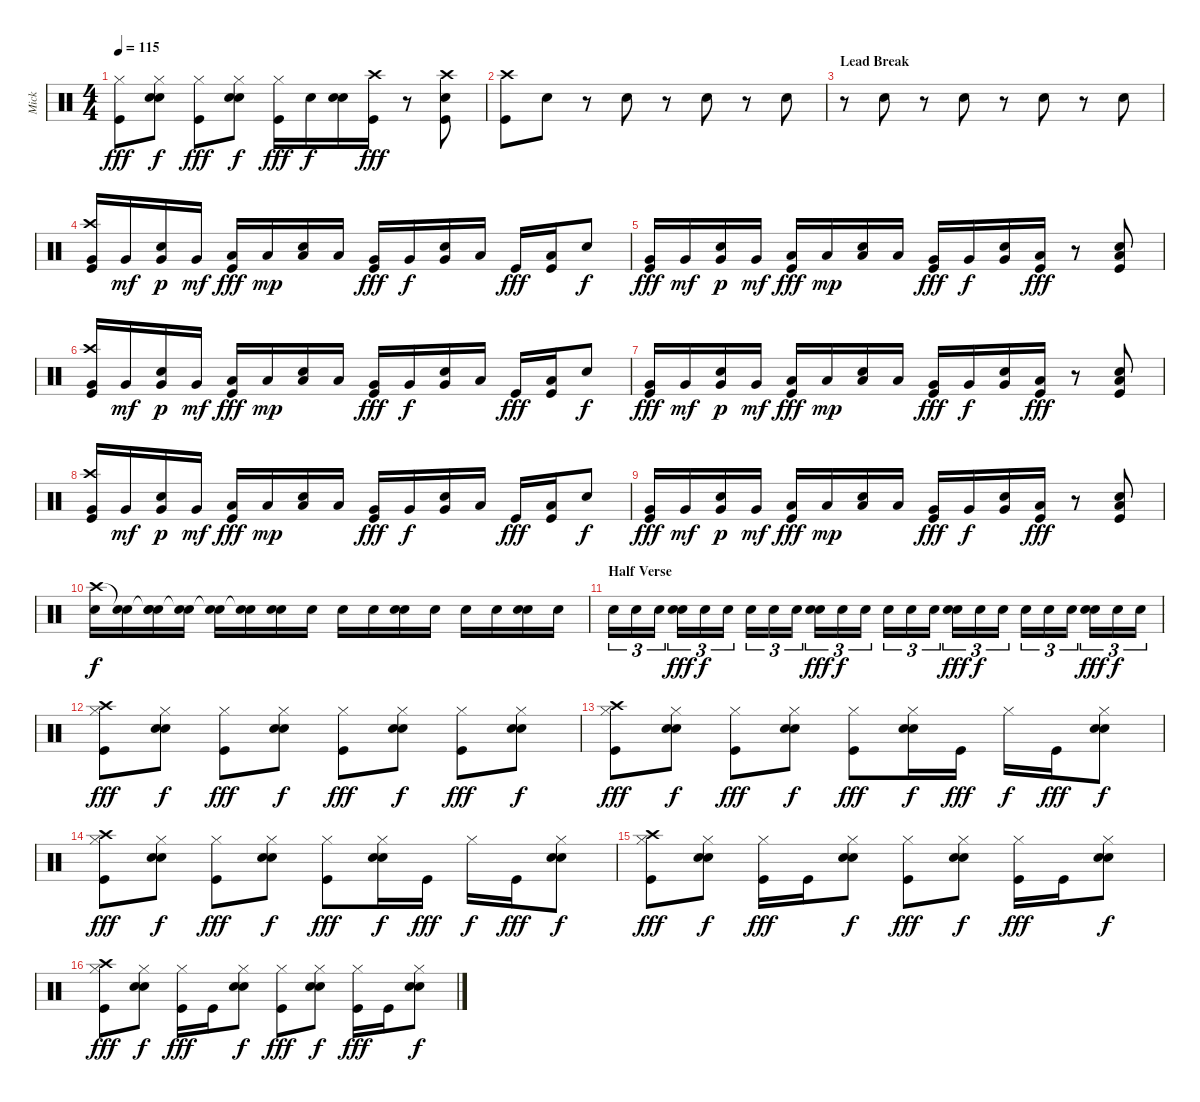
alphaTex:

\track ("Mick" "Mick") {instrument percussion}
\staff {score}
\articulation defaults
\ts (4 4)
\tempo 115
\clef neutral
\ks c
("Hi-Hat (closed)" "Kick (hit)").8{dy fff} ("Hand Clap (hit)" "Hi-Hat (closed)" "Electric Snare (hit)").8{dy f} ("Hi-Hat (closed)" "Kick (hit)").8{dy fff} ("Hand Clap (hit)" "Hi-Hat (closed)" "Electric Snare (hit)").8{dy f} ("Hi-Hat (closed)" "Kick (hit)").16{dy fff} "Electric Snare (hit)".16{dy f} ("Hand Clap (hit)" "Electric Snare (hit)").16 ("Crash high (hit)" "Kick (hit)").16{dy fff} r.8 ("Crash high (hit)" "Hand Clap (hit)" "Kick (hit)").8 |
("Crash high (hit)" "Kick (hit)").8 "Hand Clap (hit)".8 r.8 "Hand Clap (hit)".8 r.8 "Hand Clap (hit)".8 r.8 "Hand Clap (hit)".8 |
\section ("" "Lead Break")
r.8 "Hand Clap (hit)".8 r.8 "Hand Clap (hit)".8 r.8 "Hand Clap (hit)".8 r.8 "Hand Clap (hit)".8 |
("Crash high (hit)" "Very Low Tom (hit)" "Kick (hit)").16 "Very Low Tom (hit)".16{dy mf} ("Hand Clap (hit)" "Very Low Tom (hit)").16{dy p} "Very Low Tom (hit)".16{dy mf} ("Low Floor Tom (hit)" "Kick (hit)").16{dy fff} "Low Floor Tom (hit)".16{dy mp} ("Hand Clap (hit)" "Low Floor Tom (hit)").16 "Low Floor Tom (hit)".16 ("Very Low Tom (hit)" "Kick (hit)").16{dy fff} "Very Low Tom (hit)".16{dy f} ("Hand Clap (hit)" "Very Low Tom (hit)").16 "Low Floor Tom (hit)".16 "Kick (hit)".16{dy fff} ("Low Floor Tom (hit)" "Kick (hit)").16 "Hand Clap (hit)".8{dy f} |
("Very Low Tom (hit)" "Kick (hit)").16{dy fff} "Very Low Tom (hit)".16{dy mf} ("Hand Clap (hit)" "Very Low Tom (hit)").16{dy p} "Very Low Tom (hit)".16{dy mf} ("Low Floor Tom (hit)" "Kick (hit)").16{dy fff} "Low Floor Tom (hit)".16{dy mp} ("Hand Clap (hit)" "Low Floor Tom (hit)").16 "Low Floor Tom (hit)".16 ("Very Low Tom (hit)" "Kick (hit)").16{dy fff} "Very Low Tom (hit)".16{dy f} ("Hand Clap (hit)" "Very Low Tom (hit)").16 ("Low Floor Tom (hit)" "Kick (hit)").16{dy fff} r.8 ("Hand Clap (hit)" "Low Floor Tom (hit)" "Kick (hit)").8 |
("Crash high (hit)" "Very Low Tom (hit)" "Kick (hit)").16 "Very Low Tom (hit)".16{dy mf} ("Hand Clap (hit)" "Very Low Tom (hit)").16{dy p} "Very Low Tom (hit)".16{dy mf} ("Low Floor Tom (hit)" "Kick (hit)").16{dy fff} "Low Floor Tom (hit)".16{dy mp} ("Hand Clap (hit)" "Low Floor Tom (hit)").16 "Low Floor Tom (hit)".16 ("Very Low Tom (hit)" "Kick (hit)").16{dy fff} "Very Low Tom (hit)".16{dy f} ("Hand Clap (hit)" "Very Low Tom (hit)").16 "Low Floor Tom (hit)".16 "Kick (hit)".16{dy fff} ("Low Floor Tom (hit)" "Kick (hit)").16 "Hand Clap (hit)".8{dy f} |
("Very Low Tom (hit)" "Kick (hit)").16{dy fff} "Very Low Tom (hit)".16{dy mf} ("Hand Clap (hit)" "Very Low Tom (hit)").16{dy p} "Very Low Tom (hit)".16{dy mf} ("Low Floor Tom (hit)" "Kick (hit)").16{dy fff} "Low Floor Tom (hit)".16{dy mp} ("Hand Clap (hit)" "Low Floor Tom (hit)").16 "Low Floor Tom (hit)".16 ("Very Low Tom (hit)" "Kick (hit)").16{dy fff} "Very Low Tom (hit)".16{dy f} ("Hand Clap (hit)" "Very Low Tom (hit)").16 ("Low Floor Tom (hit)" "Kick (hit)").16{dy fff} r.8 ("Hand Clap (hit)" "Low Floor Tom (hit)" "Kick (hit)").8 |
("Crash high (hit)" "Very Low Tom (hit)" "Kick (hit)").16 "Very Low Tom (hit)".16{dy mf} ("Hand Clap (hit)" "Very Low Tom (hit)").16{dy p} "Very Low Tom (hit)".16{dy mf} ("Low Floor Tom (hit)" "Kick (hit)").16{dy fff} "Low Floor Tom (hit)".16{dy mp} ("Hand Clap (hit)" "Low Floor Tom (hit)").16 "Low Floor Tom (hit)".16 ("Very Low Tom (hit)" "Kick (hit)").16{dy fff} "Very Low Tom (hit)".16{dy f} ("Hand Clap (hit)" "Very Low Tom (hit)").16 "Low Floor Tom (hit)".16 "Kick (hit)".16{dy fff} ("Low Floor Tom (hit)" "Kick (hit)").16 "Hand Clap (hit)".8{dy f} |
("Very Low Tom (hit)" "Kick (hit)").16{dy fff} "Very Low Tom (hit)".16{dy mf} ("Hand Clap (hit)" "Very Low Tom (hit)").16{dy p} "Very Low Tom (hit)".16{dy mf} ("Low Floor Tom (hit)" "Kick (hit)").16{dy fff} "Low Floor Tom (hit)".16{dy mp} ("Hand Clap (hit)" "Low Floor Tom (hit)").16 "Low Floor Tom (hit)".16 ("Very Low Tom (hit)" "Kick (hit)").16{dy fff} "Very Low Tom (hit)".16{dy f} ("Hand Clap (hit)" "Very Low Tom (hit)").16 ("Low Floor Tom (hit)" "Kick (hit)").16{dy fff} r.8 ("Hand Clap (hit)" "Low Floor Tom (hit)" "Kick (hit)").8 |
("Crash high (hit)" "Electric Snare (hit)").16{dy f} ("Snare (hit)"{t} "Electric Snare (hit)").16 ("Hand Clap (hit)"{t} "Hand Clap (hit)" "Electric Snare (hit)").16 ("Snare (hit)"{t} "Electric Snare (hit)").16 ("Snare (hit)"{t} "Electric Snare (hit)").16 ("Snare (hit)"{t} "Electric Snare (hit)").16 ("Hand Clap (hit)" "Electric Snare (hit)").16 "Electric Snare (hit)".16 "Electric Snare (hit)".16 "Electric Snare (hit)".16 ("Hand Clap (hit)" "Electric Snare (hit)").16 "Electric Snare (hit)".16 "Electric Snare (hit)".16 "Electric Snare (hit)".16 ("Hand Clap (hit)" "Electric Snare (hit)").16 "Electric Snare (hit)".16 |
\section ("" "Half Verse")
"Electric Snare (hit)".16{tu (3 2)} "Electric Snare (hit)".16{tu (3 2)} "Electric Snare (hit)".16{tu (3 2)} ("Hand Clap (hit)" "Electric Snare (hit)").16{tu (3 2) dy fff} "Electric Snare (hit)".16{tu (3 2) dy f} "Electric Snare (hit)".16{tu (3 2)} "Electric Snare (hit)".16{tu (3 2)} "Electric Snare (hit)".16{tu (3 2)} "Electric Snare (hit)".16{tu (3 2)} ("Hand Clap (hit)" "Electric Snare (hit)").16{tu (3 2) dy fff} "Electric Snare (hit)".16{tu (3 2) dy f} "Electric Snare (hit)".16{tu (3 2)} "Electric Snare (hit)".16{tu (3 2)} "Electric Snare (hit)".16{tu (3 2)} "Electric Snare (hit)".16{tu (3 2)} ("Hand Clap (hit)" "Electric Snare (hit)").16{tu (3 2) dy fff} "Electric Snare (hit)".16{tu (3 2) dy f} "Electric Snare (hit)".16{tu (3 2)} "Electric Snare (hit)".16{tu (3 2)} "Electric Snare (hit)".16{tu (3 2)} "Electric Snare (hit)".16{tu (3 2)} ("Hand Clap (hit)" "Electric Snare (hit)").16{tu (3 2) dy fff} "Electric Snare (hit)".16{tu (3 2) dy f} "Electric Snare (hit)".16{tu (3 2)} |
("Crash high (hit)" "Hi-Hat (closed)" "Kick (hit)").8{dy fff} ("Hand Clap (hit)" "Hi-Hat (closed)" "Electric Snare (hit)").8{dy f} ("Hi-Hat (closed)" "Kick (hit)").8{dy fff} ("Hand Clap (hit)" "Hi-Hat (closed)" "Electric Snare (hit)").8{dy f} ("Hi-Hat (closed)" "Kick (hit)").8{dy fff} ("Hand Clap (hit)" "Hi-Hat (closed)" "Electric Snare (hit)").8{dy f} ("Hi-Hat (closed)" "Kick (hit)").8{dy fff} ("Hand Clap (hit)" "Hi-Hat (closed)" "Electric Snare (hit)").8{dy f} |
("Crash high (hit)" "Hi-Hat (closed)" "Kick (hit)").8{dy fff} ("Hand Clap (hit)" "Hi-Hat (closed)" "Electric Snare (hit)").8{dy f} ("Hi-Hat (closed)" "Kick (hit)").8{dy fff} ("Hand Clap (hit)" "Hi-Hat (closed)" "Electric Snare (hit)").8{dy f} ("Hi-Hat (closed)" "Kick (hit)").8{dy fff} ("Hand Clap (hit)" "Hi-Hat (closed)" "Electric Snare (hit)").16{dy f} "Kick (hit)".16{dy fff} "Hi-Hat (closed)".16{dy f} "Kick (hit)".16{dy fff} ("Hand Clap (hit)" "Hi-Hat (closed)" "Electric Snare (hit)").8{dy f} |
("Crash high (hit)" "Hi-Hat (closed)" "Kick (hit)").8{dy fff} ("Hand Clap (hit)" "Hi-Hat (closed)" "Electric Snare (hit)").8{dy f} ("Hi-Hat (closed)" "Kick (hit)").8{dy fff} ("Hand Clap (hit)" "Hi-Hat (closed)" "Electric Snare (hit)").8{dy f} ("Hi-Hat (closed)" "Kick (hit)").8{dy fff} ("Hand Clap (hit)" "Hi-Hat (closed)" "Electric Snare (hit)").16{dy f} "Kick (hit)".16{dy fff} "Hi-Hat (closed)".16{dy f} "Kick (hit)".16{dy fff} ("Hand Clap (hit)" "Hi-Hat (closed)" "Electric Snare (hit)").8{dy f} |
("Crash high (hit)" "Hi-Hat (closed)" "Kick (hit)").8{dy fff} ("Hand Clap (hit)" "Hi-Hat (closed)" "Electric Snare (hit)").8{dy f} ("Hi-Hat (closed)" "Kick (hit)").16{dy fff} "Kick (hit)".16 ("Hand Clap (hit)" "Hi-Hat (closed)" "Electric Snare (hit)").8{dy f} ("Hi-Hat (closed)" "Kick (hit)").8{dy fff} ("Hand Clap (hit)" "Hi-Hat (closed)" "Electric Snare (hit)").8{dy f} ("Hi-Hat (closed)" "Kick (hit)").16{dy fff} "Kick (hit)".16 ("Hand Clap (hit)" "Hi-Hat (closed)" "Electric Snare (hit)").8{dy f} |
("Crash high (hit)" "Hi-Hat (closed)" "Kick (hit)").8{dy fff} ("Hand Clap (hit)" "Hi-Hat (closed)" "Electric Snare (hit)").8{dy f} ("Hi-Hat (closed)" "Kick (hit)").16{dy fff} "Kick (hit)".16 ("Hand Clap (hit)" "Hi-Hat (closed)" "Electric Snare (hit)").8{dy f} ("Hi-Hat (closed)" "Kick (hit)").8{dy fff} ("Hand Clap (hit)" "Hi-Hat (closed)" "Electric Snare (hit)").8{dy f} ("Hi-Hat (closed)" "Kick (hit)").16{dy fff} "Kick (hit)".16 ("Hand Clap (hit)" "Hi-Hat (closed)" "Electric Snare (hit)").8{dy f}
